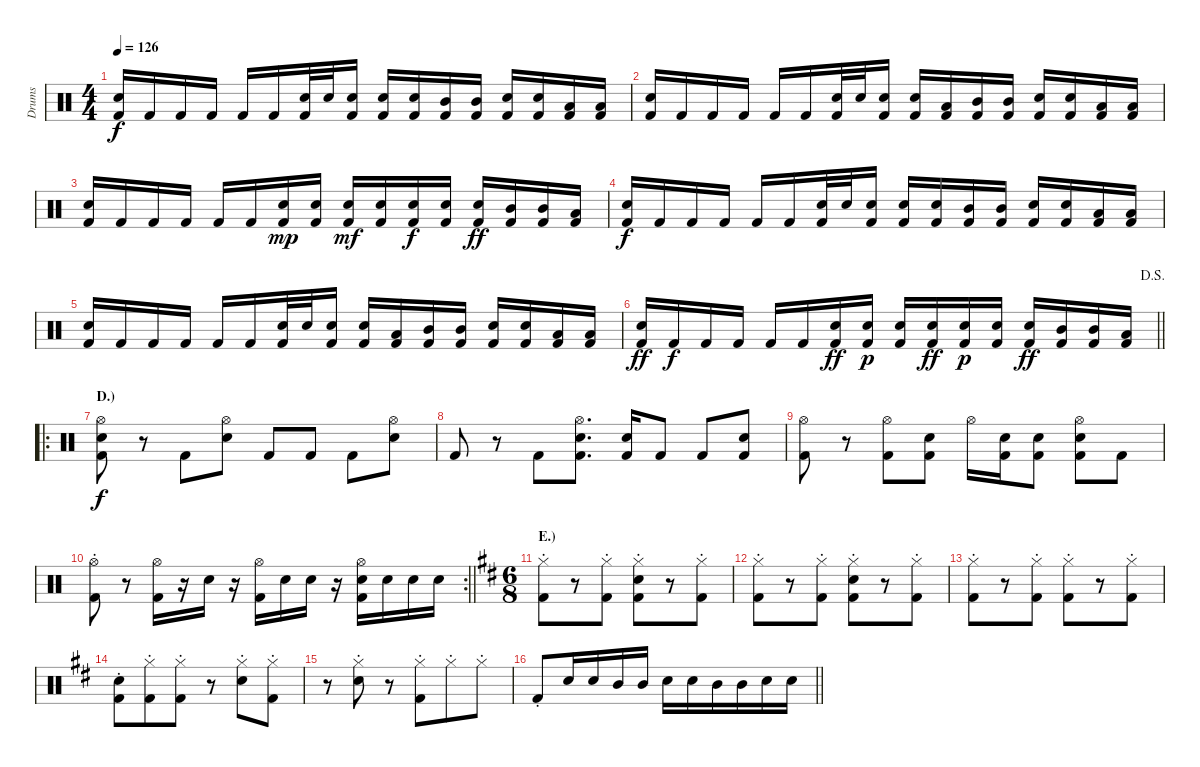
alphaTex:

\track ("Drums" "Drums") {instrument percussion}
\staff {score}
\articulation defaults
\ts (4 4)
\tempo 126
\clef neutral
\ks c
("Electric Snare (hit)" "Kick (hit) 2").16{dy f} "Kick (hit) 2".16 "Kick (hit) 2".16 "Kick (hit) 2".16 "Kick (hit) 2".16 "Kick (hit) 2".16 ("Electric Snare (hit)" "Kick (hit) 2").32 "Electric Snare (hit)".32 ("Electric Snare (hit)" "Kick (hit) 2").16 ("Electric Snare (hit)" "Kick (hit) 2").16 ("Electric Snare (hit)" "Kick (hit) 2").16 ("Mid Tom (hit)" "Kick (hit) 2").16 ("Mid Tom (hit)" "Kick (hit) 2").16 ("Electric Snare (hit)" "Kick (hit) 2").16 ("Electric Snare (hit)" "Kick (hit) 2").16 ("Low Tom (hit)" "Kick (hit) 2").16 ("Low Tom (hit)" "Kick (hit) 2").16 |
("Electric Snare (hit)" "Kick (hit) 2").16 "Kick (hit) 2".16 "Kick (hit) 2".16 "Kick (hit) 2".16 "Kick (hit) 2".16 "Kick (hit) 2".16 ("Electric Snare (hit)" "Kick (hit) 2").32 "Electric Snare (hit)".32 ("Electric Snare (hit)" "Kick (hit) 2").16 ("Electric Snare (hit)" "Kick (hit) 2").16 ("Low Tom (hit)" "Kick (hit) 2").16 ("Mid Tom (hit)" "Kick (hit) 2").16 ("Mid Tom (hit)" "Kick (hit) 2").16 ("Electric Snare (hit)" "Kick (hit) 2").16 ("Electric Snare (hit)" "Kick (hit) 2").16 ("Low Tom (hit)" "Kick (hit) 2").16 ("Low Tom (hit)" "Kick (hit) 2").16 |
("Electric Snare (hit)" "Kick (hit) 2").16 "Kick (hit) 2".16 "Kick (hit) 2".16 "Kick (hit) 2".16 "Kick (hit) 2".16 "Kick (hit) 2".16 ("Electric Snare (hit)" "Kick (hit) 2").16{dy mp} ("Electric Snare (hit)" "Kick (hit) 2").16 ("Electric Snare (hit)" "Kick (hit) 2").16{dy mf} ("Electric Snare (hit)" "Kick (hit) 2").16 ("Electric Snare (hit)" "Kick (hit) 2").16{dy f} ("Electric Snare (hit)" "Kick (hit) 2").16 ("Electric Snare (hit)" "Kick (hit) 2").16{dy ff} ("Mid Tom (hit)" "Kick (hit) 2").16 ("Mid Tom (hit)" "Kick (hit) 2").16 ("Low Tom (hit)" "Kick (hit) 2").16 |
("Electric Snare (hit)" "Kick (hit) 2").16{dy f} "Kick (hit) 2".16 "Kick (hit) 2".16 "Kick (hit) 2".16 "Kick (hit) 2".16 "Kick (hit) 2".16 ("Electric Snare (hit)" "Kick (hit) 2").32 "Electric Snare (hit)".32 ("Electric Snare (hit)" "Kick (hit) 2").16 ("Electric Snare (hit)" "Kick (hit) 2").16 ("Electric Snare (hit)" "Kick (hit) 2").16 ("Mid Tom (hit)" "Kick (hit) 2").16 ("Mid Tom (hit)" "Kick (hit) 2").16 ("Electric Snare (hit)" "Kick (hit) 2").16 ("Electric Snare (hit)" "Kick (hit) 2").16 ("Low Tom (hit)" "Kick (hit) 2").16 ("Low Tom (hit)" "Kick (hit) 2").16 |
("Electric Snare (hit)" "Kick (hit) 2").16 "Kick (hit) 2".16 "Kick (hit) 2".16 "Kick (hit) 2".16 "Kick (hit) 2".16 "Kick (hit) 2".16 ("Electric Snare (hit)" "Kick (hit) 2").32 "Electric Snare (hit)".32 ("Electric Snare (hit)" "Kick (hit) 2").16 ("Electric Snare (hit)" "Kick (hit) 2").16 ("Low Tom (hit)" "Kick (hit) 2").16 ("Mid Tom (hit)" "Kick (hit) 2").16 ("Mid Tom (hit)" "Kick (hit) 2").16 ("Electric Snare (hit)" "Kick (hit) 2").16 ("Electric Snare (hit)" "Kick (hit) 2").16 ("Low Tom (hit)" "Kick (hit) 2").16 ("Low Tom (hit)" "Kick (hit) 2").16 |
\jump dalsegno
\barLineRight lightlight
("Electric Snare (hit)" "Kick (hit) 2").16{dy ff} "Kick (hit) 2".16{dy f} "Kick (hit) 2".16 "Kick (hit) 2".16 "Kick (hit) 2".16 "Kick (hit) 2".16 ("Electric Snare (hit)" "Kick (hit) 2").16{dy ff} ("Electric Snare (hit)" "Kick (hit) 2").16{dy p} ("Electric Snare (hit)" "Kick (hit) 2").16 ("Electric Snare (hit)" "Kick (hit) 2").16{dy ff} ("Electric Snare (hit)" "Kick (hit) 2").16{dy p} ("Electric Snare (hit)" "Kick (hit) 2").16 ("Electric Snare (hit)" "Kick (hit) 2").16{dy ff} ("Mid Tom (hit)" "Kick (hit) 2").16 ("Mid Tom (hit)" "Kick (hit) 2").16 ("Low Tom (hit)" "Kick (hit) 2").16 |
\ro
\section ("" "D.) ")
("Electric Snare (hit)" "Hi-Hat (open)" "Kick (hit) 2").8{dy f} r.8 "Kick (hit) 2".8 ("Electric Snare (hit)" "Hi-Hat (open)").8 "Kick (hit) 2".8 "Kick (hit) 2".8 "Kick (hit) 2".8 ("Electric Snare (hit)" "Hi-Hat (open)").8 |
"Kick (hit) 2".8 r.8 "Kick (hit) 2".8 ("Electric Snare (hit)" "Hi-Hat (open)" "Kick (hit) 2").8{d} ("Electric Snare (hit)" "Kick (hit) 2").16 "Kick (hit) 2".8 "Kick (hit) 2".8 ("Electric Snare (hit)" "Kick (hit) 2").8 |
("Hi-Hat (open)" "Kick (hit) 2").8 r.8 ("Hi-Hat (open)" "Kick (hit) 2").8 ("Electric Snare (hit)" "Kick (hit) 2").8 "Hi-Hat (open)".16 ("Electric Snare (hit)" "Kick (hit) 2").16 ("Electric Snare (hit)" "Kick (hit) 2").8 ("Electric Snare (hit)" "Hi-Hat (open)" "Kick (hit) 2").8 "Kick (hit) 2".8 |
\rc 2
\barLineRight lightlight
("Hi-Hat (open)"{st} "Kick (hit) 2"{st}).8 r.8 ("Hi-Hat (open)" "Kick (hit) 2").16 r.16 "Electric Snare (hit)".16 r.16 ("Hi-Hat (open)" "Kick (hit) 2").16 "Electric Snare (hit)".16 "Electric Snare (hit)".16 r.16 ("Electric Snare (hit)" "Hi-Hat (open)" "Kick (hit) 2").16 "Electric Snare (hit)".16 "Electric Snare (hit)".16 "Electric Snare (hit)".16 |
\ts (6 8)
\section ("" "E.) ")
\ks d
("Hi-Hat (closed)"{st} "Kick (hit) 2"{st}).8 r.8 ("Hi-Hat (closed)"{st} "Kick (hit) 2"{st}).8 ("Electric Snare (hit)"{st} "Hi-Hat (closed)"{st} "Kick (hit) 2"{st}).8 r.8 ("Hi-Hat (closed)"{st} "Kick (hit) 2"{st}).8 |
("Hi-Hat (closed)"{st} "Kick (hit) 2"{st}).8 r.8 ("Hi-Hat (closed)"{st} "Kick (hit) 2"{st}).8 ("Electric Snare (hit)"{st} "Hi-Hat (closed)"{st} "Kick (hit) 2"{st}).8 r.8 ("Hi-Hat (closed)"{st} "Kick (hit) 2"{st}).8 |
("Hi-Hat (closed)"{st} "Kick (hit) 2"{st}).8 r.8 ("Hi-Hat (closed)"{st} "Kick (hit) 2"{st}).8 ("Hi-Hat (closed)"{st} "Kick (hit) 2"{st}).8 r.8 ("Hi-Hat (closed)"{st} "Kick (hit) 2"{st}).8 |
("Electric Snare (hit)" "Kick (hit) 2"{st}).8 ("Hi-Hat (closed)"{st} "Kick (hit) 2"{st}).8 ("Hi-Hat (closed)"{st} "Kick (hit) 2"{st}).8 r.8 ("Electric Snare (hit)" "Hi-Hat (closed)"{st}).8 ("Hi-Hat (closed)"{st} "Kick (hit) 2"{st}).8 |
r.8 ("Electric Snare (hit)" "Hi-Hat (closed)"{st}).8 r.8 ("Hi-Hat (closed)"{st} "Kick (hit) 2"{st}).8 "Hi-Hat (closed)"{st}.8 "Hi-Hat (closed)"{st}.8 |
\barLineRight lightlight "Kick (hit) 2"{st}.8 "Electric Snare (hit)".16 "Electric Snare (hit)".16 "Mid Tom (hit)".16 "Mid Tom (hit)".16 "Electric Snare (hit)".16 "Electric Snare (hit)".16 "Mid Tom (hit)".16 "Mid Tom (hit)".16 "Electric Snare (hit)".16 "Electric Snare (hit)".16
